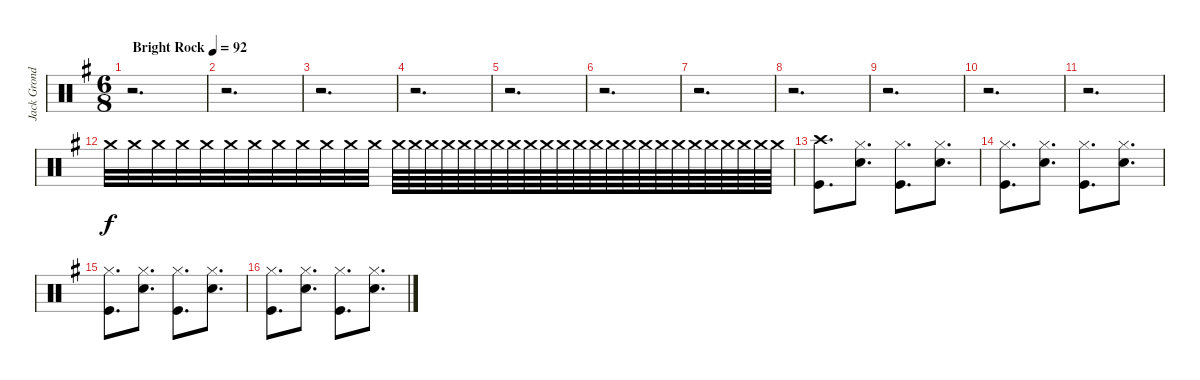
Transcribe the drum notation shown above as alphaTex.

\track ("Jack Grondin Drums" "Jack Grond") {instrument percussion}
\staff {score}
\articulation defaults
\ts (6 8)
\tempo (92 "Bright Rock")
\clef neutral
\ks g
r.2{d dy f} |
r.2{d} |
r.2{d} |
r.2{d} |
r.2{d} |
r.2{d} |
r.2{d} |
r.2{d} |
r.2{d} |
r.2{d} |
r.2{d volume 6} |
"Crash medium (hit)".32{volume 16} "Crash medium (hit)".32 "Crash medium (hit)".32 "Crash medium (hit)".32 "Crash medium (hit)".32 "Crash medium (hit)".32 "Crash medium (hit)".32 "Crash medium (hit)".32 "Crash medium (hit)".32 "Crash medium (hit)".32 "Crash medium (hit)".32 "Crash medium (hit)".32 "Crash medium (hit)".64 "Crash medium (hit)".64 "Crash medium (hit)".64 "Crash medium (hit)".64 "Crash medium (hit)".64 "Crash medium (hit)".64 "Crash medium (hit)".64 "Crash medium (hit)".64 "Crash medium (hit)".64 "Crash medium (hit)".64 "Crash medium (hit)".64 "Crash medium (hit)".64 "Crash medium (hit)".64 "Crash medium (hit)".64 "Crash medium (hit)".64 "Crash medium (hit)".64 "Crash medium (hit)".64 "Crash medium (hit)".64 "Crash medium (hit)".64 "Crash medium (hit)".64 "Crash medium (hit)".64 "Crash medium (hit)".64 "Crash medium (hit)".64 "Crash medium (hit)".64 |
("Crash high (hit)" "Kick (hit)").8{d volume 13} ("Hi-Hat (closed)" "Snare (hit) 2").8{d} ("Hi-Hat (closed)" "Kick (hit)").8{d} ("Hi-Hat (closed)" "Snare (hit) 2").8{d} |
("Hi-Hat (closed)" "Kick (hit)").8{d} ("Hi-Hat (closed)" "Snare (hit) 2").8{d} ("Hi-Hat (closed)" "Kick (hit)").8{d} ("Hi-Hat (closed)" "Snare (hit) 2").8{d} |
("Hi-Hat (closed)" "Kick (hit)").8{d} ("Hi-Hat (closed)" "Snare (hit) 2").8{d} ("Hi-Hat (closed)" "Kick (hit)").8{d} ("Hi-Hat (closed)" "Snare (hit) 2").8{d} |
("Hi-Hat (closed)" "Kick (hit)").8{d} ("Hi-Hat (closed)" "Snare (hit) 2").8{d} ("Hi-Hat (closed)" "Kick (hit)").8{d} ("Hi-Hat (closed)" "Snare (hit) 2").8{d}
